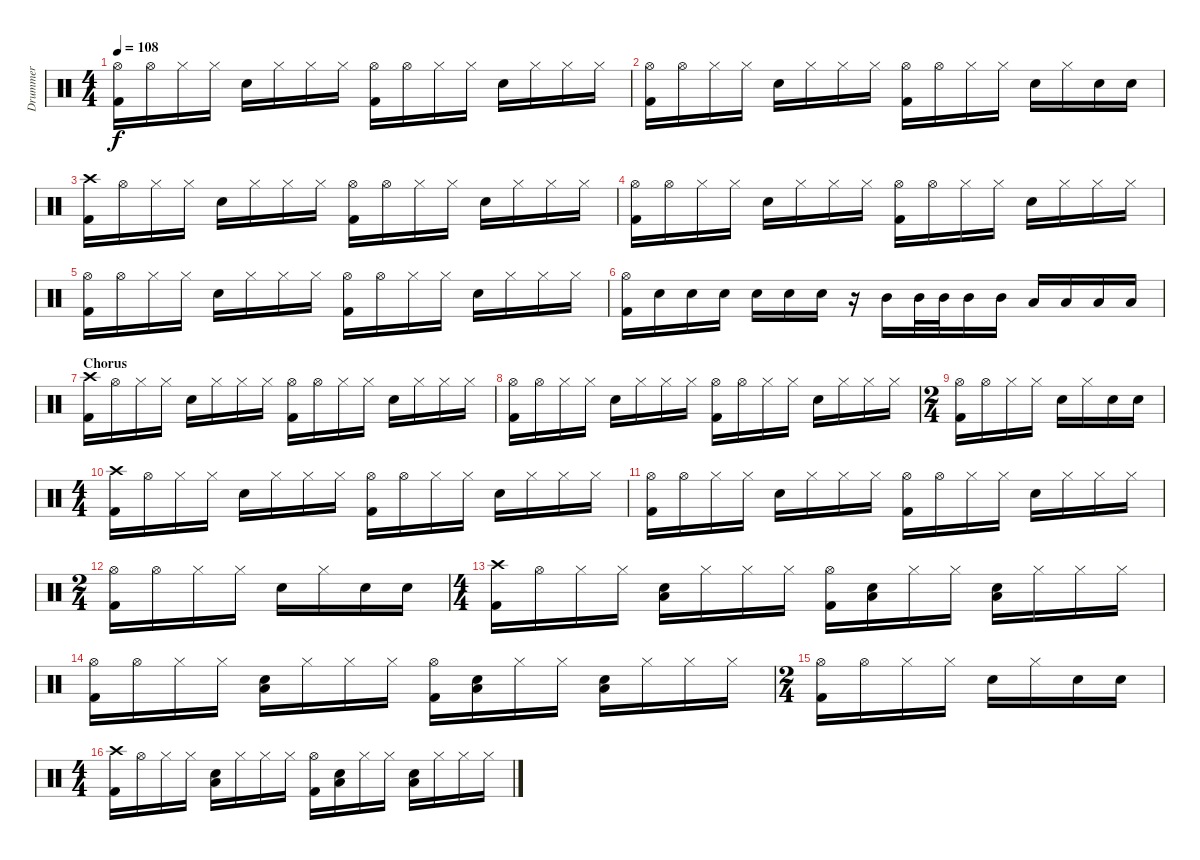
\track ("Drummer" "Drummer") {instrument percussion}
\staff {score}
\articulation defaults
\ts (4 4)
\tempo 108
\clef neutral
\ks c
("Hi-Hat (open)" "Kick (hit) 2").16{dy f} "Hi-Hat (open)".16 "Hi-Hat (closed)".16 "Hi-Hat (closed)".16 "Electric Snare (hit)".16 "Hi-Hat (closed)".16 "Hi-Hat (closed)".16 "Hi-Hat (closed)".16 ("Hi-Hat (open)" "Kick (hit) 2").16 "Hi-Hat (open)".16 "Hi-Hat (closed)".16 "Hi-Hat (closed)".16 "Electric Snare (hit)".16 "Hi-Hat (closed)".16 "Hi-Hat (closed)".16 "Hi-Hat (closed)".16 |
("Hi-Hat (open)" "Kick (hit) 2").16 "Hi-Hat (open)".16 "Hi-Hat (closed)".16 "Hi-Hat (closed)".16 "Electric Snare (hit)".16 "Hi-Hat (closed)".16 "Hi-Hat (closed)".16 "Hi-Hat (closed)".16 ("Hi-Hat (open)" "Kick (hit) 2").16 "Hi-Hat (open)".16 "Hi-Hat (closed)".16 "Hi-Hat (closed)".16 "Electric Snare (hit)".16 "Hi-Hat (closed)".16 "Electric Snare (hit)".16 "Electric Snare (hit)".16 |
("Crash high (hit)" "Kick (hit) 2").16 "Hi-Hat (open)".16 "Hi-Hat (closed)".16 "Hi-Hat (closed)".16 "Electric Snare (hit)".16 "Hi-Hat (closed)".16 "Hi-Hat (closed)".16 "Hi-Hat (closed)".16 ("Hi-Hat (open)" "Kick (hit) 2").16 "Hi-Hat (open)".16 "Hi-Hat (closed)".16 "Hi-Hat (closed)".16 "Electric Snare (hit)".16 "Hi-Hat (closed)".16 "Hi-Hat (closed)".16 "Hi-Hat (closed)".16 |
("Hi-Hat (open)" "Kick (hit) 2").16 "Hi-Hat (open)".16 "Hi-Hat (closed)".16 "Hi-Hat (closed)".16 "Electric Snare (hit)".16 "Hi-Hat (closed)".16 "Hi-Hat (closed)".16 "Hi-Hat (closed)".16 ("Hi-Hat (open)" "Kick (hit) 2").16 "Hi-Hat (open)".16 "Hi-Hat (closed)".16 "Hi-Hat (closed)".16 "Electric Snare (hit)".16 "Hi-Hat (closed)".16 "Hi-Hat (closed)".16 "Hi-Hat (closed)".16 |
("Hi-Hat (open)" "Kick (hit) 2").16 "Hi-Hat (open)".16 "Hi-Hat (closed)".16 "Hi-Hat (closed)".16 "Electric Snare (hit)".16 "Hi-Hat (closed)".16 "Hi-Hat (closed)".16 "Hi-Hat (closed)".16 ("Hi-Hat (open)" "Kick (hit) 2").16 "Hi-Hat (open)".16 "Hi-Hat (closed)".16 "Hi-Hat (closed)".16 "Electric Snare (hit)".16 "Hi-Hat (closed)".16 "Hi-Hat (closed)".16 "Hi-Hat (closed)".16 |
("Hi-Hat (open)" "Kick (hit) 2").16 "Electric Snare (hit)".16 "Electric Snare (hit)".16 "Electric Snare (hit)".16 "Electric Snare (hit)".16 "Electric Snare (hit)".16 "Electric Snare (hit)".16 r.16 "Mid Tom (hit)".16 "Mid Tom (hit)".32 "Mid Tom (hit)".32 "Mid Tom (hit)".16 "Mid Tom (hit)".16 "Low Tom (hit)".16 "Low Tom (hit)".16 "Low Floor Tom (hit)".16 "Low Floor Tom (hit)".16 |
\section ("" "Chorus")
("Crash high (hit)" "Kick (hit) 2").16 "Hi-Hat (open)".16 "Hi-Hat (closed)".16 "Hi-Hat (closed)".16 "Electric Snare (hit)".16 "Hi-Hat (closed)".16 "Hi-Hat (closed)".16 "Hi-Hat (closed)".16 ("Hi-Hat (open)" "Kick (hit) 2").16 "Hi-Hat (open)".16 "Hi-Hat (closed)".16 "Hi-Hat (closed)".16 "Electric Snare (hit)".16 "Hi-Hat (closed)".16 "Hi-Hat (closed)".16 "Hi-Hat (closed)".16 |
("Hi-Hat (open)" "Kick (hit) 2").16 "Hi-Hat (open)".16 "Hi-Hat (closed)".16 "Hi-Hat (closed)".16 "Electric Snare (hit)".16 "Hi-Hat (closed)".16 "Hi-Hat (closed)".16 "Hi-Hat (closed)".16 ("Hi-Hat (open)" "Kick (hit) 2").16 "Hi-Hat (open)".16 "Hi-Hat (closed)".16 "Hi-Hat (closed)".16 "Electric Snare (hit)".16 "Hi-Hat (closed)".16 "Hi-Hat (closed)".16 "Hi-Hat (closed)".16 |
\ts (2 4)
("Hi-Hat (open)" "Kick (hit) 2").16 "Hi-Hat (open)".16 "Hi-Hat (closed)".16 "Hi-Hat (closed)".16 "Electric Snare (hit)".16 "Hi-Hat (closed)".16 "Electric Snare (hit)".16 "Electric Snare (hit)".16 |
\ts (4 4)
("Crash high (hit)" "Kick (hit) 2").16 "Hi-Hat (open)".16 "Hi-Hat (closed)".16 "Hi-Hat (closed)".16 "Electric Snare (hit)".16 "Hi-Hat (closed)".16 "Hi-Hat (closed)".16 "Hi-Hat (closed)".16 ("Hi-Hat (open)" "Kick (hit) 2").16 "Hi-Hat (open)".16 "Hi-Hat (closed)".16 "Hi-Hat (closed)".16 "Electric Snare (hit)".16 "Hi-Hat (closed)".16 "Hi-Hat (closed)".16 "Hi-Hat (closed)".16 |
("Hi-Hat (open)" "Kick (hit) 2").16 "Hi-Hat (open)".16 "Hi-Hat (closed)".16 "Hi-Hat (closed)".16 "Electric Snare (hit)".16 "Hi-Hat (closed)".16 "Hi-Hat (closed)".16 "Hi-Hat (closed)".16 ("Hi-Hat (open)" "Kick (hit) 2").16 "Hi-Hat (open)".16 "Hi-Hat (closed)".16 "Hi-Hat (closed)".16 "Electric Snare (hit)".16 "Hi-Hat (closed)".16 "Hi-Hat (closed)".16 "Hi-Hat (closed)".16 |
\ts (2 4)
("Hi-Hat (open)" "Kick (hit) 2").16 "Hi-Hat (open)".16 "Hi-Hat (closed)".16 "Hi-Hat (closed)".16 "Electric Snare (hit)".16 "Hi-Hat (closed)".16 "Electric Snare (hit)".16 "Electric Snare (hit)".16 |
\ts (4 4)
("Crash high (hit)" "Kick (hit) 2").16 "Hi-Hat (open)".16 "Hi-Hat (closed)".16 "Hi-Hat (closed)".16 ("Low Floor Tom (hit)" "Electric Snare (hit)").16 "Hi-Hat (closed)".16 "Hi-Hat (closed)".16 "Hi-Hat (closed)".16 ("Hi-Hat (open)" "Kick (hit) 2").16 ("Low Floor Tom (hit)" "Electric Snare (hit)").16 "Hi-Hat (closed)".16 "Hi-Hat (closed)".16 ("Low Floor Tom (hit)" "Electric Snare (hit)").16 "Hi-Hat (closed)".16 "Hi-Hat (closed)".16 "Hi-Hat (closed)".16 |
("Hi-Hat (open)" "Kick (hit) 2").16 "Hi-Hat (open)".16 "Hi-Hat (closed)".16 "Hi-Hat (closed)".16 ("Low Floor Tom (hit)" "Electric Snare (hit)").16 "Hi-Hat (closed)".16 "Hi-Hat (closed)".16 "Hi-Hat (closed)".16 ("Hi-Hat (open)" "Kick (hit) 2").16 ("Low Floor Tom (hit)" "Electric Snare (hit)").16 "Hi-Hat (closed)".16 "Hi-Hat (closed)".16 ("Low Floor Tom (hit)" "Electric Snare (hit)").16 "Hi-Hat (closed)".16 "Hi-Hat (closed)".16 "Hi-Hat (closed)".16 |
\ts (2 4)
("Hi-Hat (open)" "Kick (hit) 2").16 "Hi-Hat (open)".16 "Hi-Hat (closed)".16 "Hi-Hat (closed)".16 "Electric Snare (hit)".16 "Hi-Hat (closed)".16 "Electric Snare (hit)".16 "Electric Snare (hit)".16 |
\ts (4 4)
("Crash high (hit)" "Kick (hit) 2").16 "Hi-Hat (open)".16 "Hi-Hat (closed)".16 "Hi-Hat (closed)".16 ("Low Floor Tom (hit)" "Electric Snare (hit)").16 "Hi-Hat (closed)".16 "Hi-Hat (closed)".16 "Hi-Hat (closed)".16 ("Hi-Hat (open)" "Kick (hit) 2").16 ("Low Floor Tom (hit)" "Electric Snare (hit)").16 "Hi-Hat (closed)".16 "Hi-Hat (closed)".16 ("Low Floor Tom (hit)" "Electric Snare (hit)").16 "Hi-Hat (closed)".16 "Hi-Hat (closed)".16 "Hi-Hat (closed)".16
